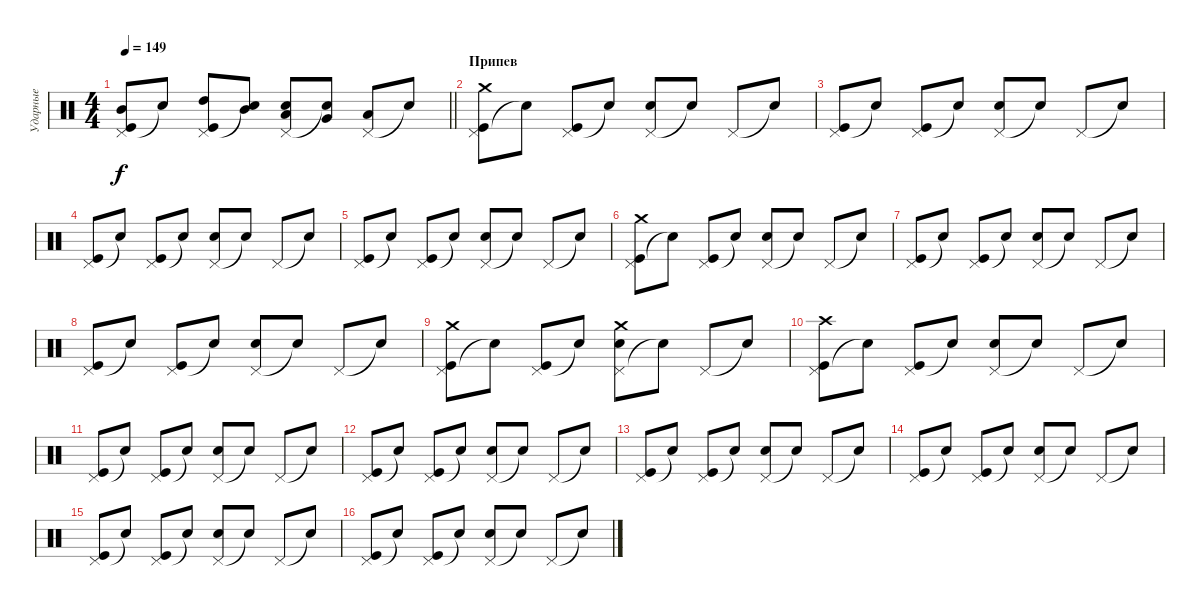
\track ("Ударные" "Ударные") {instrument percussion}
\staff {score}
\articulation defaults
\ts (4 4)
\tempo 149
\clef neutral
\barLineRight lightlight
\ks c
("Pedal Hi-Hat (hit)" "Kick (hit)" "Mid Tom (hit)").8{dy f} "Snare (hit)"{t}.8 ("Pedal Hi-Hat (hit)" "Kick (hit)" "High Tom (hit)").8 ("Snare (hit)"{t} "Mid Tom (hit)").8 ("Pedal Hi-Hat (hit)" "Snare (hit) 2" "Low Tom (hit)").8 ("Snare (hit)"{t} "Very Low Tom (hit)").8 ("Pedal Hi-Hat (hit)" "Low Floor Tom (hit)").8 "Snare (hit)"{t}.8 |
\section ("" "Припев")
("Pedal Hi-Hat (hit)" "Kick (hit)" "Crash medium (hit)").8 "Snare (hit)"{t}.8 ("Pedal Hi-Hat (hit)" "Kick (hit)").8 "Snare (hit)"{t}.8 ("Pedal Hi-Hat (hit)" "Snare (hit) 2").8 "Snare (hit)"{t}.8 "Pedal Hi-Hat (hit)".8 "Snare (hit)"{t}.8 |
("Pedal Hi-Hat (hit)" "Kick (hit)").8 "Snare (hit)"{t}.8 ("Pedal Hi-Hat (hit)" "Kick (hit)").8 "Snare (hit)"{t}.8 ("Pedal Hi-Hat (hit)" "Snare (hit) 2").8 "Snare (hit)"{t}.8 "Pedal Hi-Hat (hit)".8 "Snare (hit)"{t}.8 |
("Pedal Hi-Hat (hit)" "Kick (hit)").8 "Snare (hit)"{t}.8 ("Pedal Hi-Hat (hit)" "Kick (hit)").8 "Snare (hit)"{t}.8 ("Pedal Hi-Hat (hit)" "Snare (hit) 2").8 "Snare (hit)"{t}.8 "Pedal Hi-Hat (hit)".8 "Snare (hit)"{t}.8 |
("Pedal Hi-Hat (hit)" "Kick (hit)").8 "Snare (hit)"{t}.8 ("Pedal Hi-Hat (hit)" "Kick (hit)").8 "Snare (hit)"{t}.8 ("Pedal Hi-Hat (hit)" "Snare (hit) 2").8 "Snare (hit)"{t}.8 "Pedal Hi-Hat (hit)".8 "Snare (hit)"{t}.8 |
("Pedal Hi-Hat (hit)" "Kick (hit)" "Crash medium (hit)").8 "Snare (hit)"{t}.8 ("Pedal Hi-Hat (hit)" "Kick (hit)").8 "Snare (hit)"{t}.8 ("Pedal Hi-Hat (hit)" "Snare (hit) 2").8 "Snare (hit)"{t}.8 "Pedal Hi-Hat (hit)".8 "Snare (hit)"{t}.8 |
("Pedal Hi-Hat (hit)" "Kick (hit)").8 "Snare (hit)"{t}.8 ("Pedal Hi-Hat (hit)" "Kick (hit)").8 "Snare (hit)"{t}.8 ("Pedal Hi-Hat (hit)" "Snare (hit) 2").8 "Snare (hit)"{t}.8 "Pedal Hi-Hat (hit)".8 "Snare (hit)"{t}.8 |
("Pedal Hi-Hat (hit)" "Kick (hit)").8 "Snare (hit)"{t}.8 ("Pedal Hi-Hat (hit)" "Kick (hit)").8 "Snare (hit)"{t}.8 ("Pedal Hi-Hat (hit)" "Snare (hit) 2").8 "Snare (hit)"{t}.8 "Pedal Hi-Hat (hit)".8 "Snare (hit)"{t}.8 |
("Pedal Hi-Hat (hit)" "Kick (hit)" "Crash medium (hit)").8 "Snare (hit)"{t}.8 ("Pedal Hi-Hat (hit)" "Kick (hit)").8 "Snare (hit)"{t}.8 ("Pedal Hi-Hat (hit)" "Snare (hit) 2" "Crash medium (hit)").8 "Snare (hit)"{t}.8 "Pedal Hi-Hat (hit)".8 "Snare (hit)"{t}.8 |
("Pedal Hi-Hat (hit)" "Kick (hit)" "Crash high (hit)").8 "Snare (hit)"{t}.8 ("Pedal Hi-Hat (hit)" "Kick (hit)").8 "Snare (hit)"{t}.8 ("Pedal Hi-Hat (hit)" "Snare (hit) 2").8 "Snare (hit)"{t}.8 "Pedal Hi-Hat (hit)".8 "Snare (hit)"{t}.8 |
("Pedal Hi-Hat (hit)" "Kick (hit)").8 "Snare (hit)"{t}.8 ("Pedal Hi-Hat (hit)" "Kick (hit)").8 "Snare (hit)"{t}.8 ("Pedal Hi-Hat (hit)" "Snare (hit) 2").8 "Snare (hit)"{t}.8 "Pedal Hi-Hat (hit)".8 "Snare (hit)"{t}.8 |
("Pedal Hi-Hat (hit)" "Kick (hit)").8 "Snare (hit)"{t}.8 ("Pedal Hi-Hat (hit)" "Kick (hit)").8 "Snare (hit)"{t}.8 ("Pedal Hi-Hat (hit)" "Snare (hit) 2").8 "Snare (hit)"{t}.8 "Pedal Hi-Hat (hit)".8 "Snare (hit)"{t}.8 |
("Pedal Hi-Hat (hit)" "Kick (hit)").8 "Snare (hit)"{t}.8 ("Pedal Hi-Hat (hit)" "Kick (hit)").8 "Snare (hit)"{t}.8 ("Pedal Hi-Hat (hit)" "Snare (hit) 2").8 "Snare (hit)"{t}.8 "Pedal Hi-Hat (hit)".8 "Snare (hit)"{t}.8 |
("Pedal Hi-Hat (hit)" "Kick (hit)").8 "Snare (hit)"{t}.8 ("Pedal Hi-Hat (hit)" "Kick (hit)").8 "Snare (hit)"{t}.8 ("Pedal Hi-Hat (hit)" "Snare (hit) 2").8 "Snare (hit)"{t}.8 "Pedal Hi-Hat (hit)".8 "Snare (hit)"{t}.8 |
("Pedal Hi-Hat (hit)" "Kick (hit)").8 "Snare (hit)"{t}.8 ("Pedal Hi-Hat (hit)" "Kick (hit)").8 "Snare (hit)"{t}.8 ("Pedal Hi-Hat (hit)" "Snare (hit) 2").8 "Snare (hit)"{t}.8 "Pedal Hi-Hat (hit)".8 "Snare (hit)"{t}.8 |
("Pedal Hi-Hat (hit)" "Kick (hit)").8 "Snare (hit)"{t}.8 ("Pedal Hi-Hat (hit)" "Kick (hit)").8 "Snare (hit)"{t}.8 ("Pedal Hi-Hat (hit)" "Snare (hit) 2").8 "Snare (hit)"{t}.8 "Pedal Hi-Hat (hit)".8 "Snare (hit)"{t}.8
